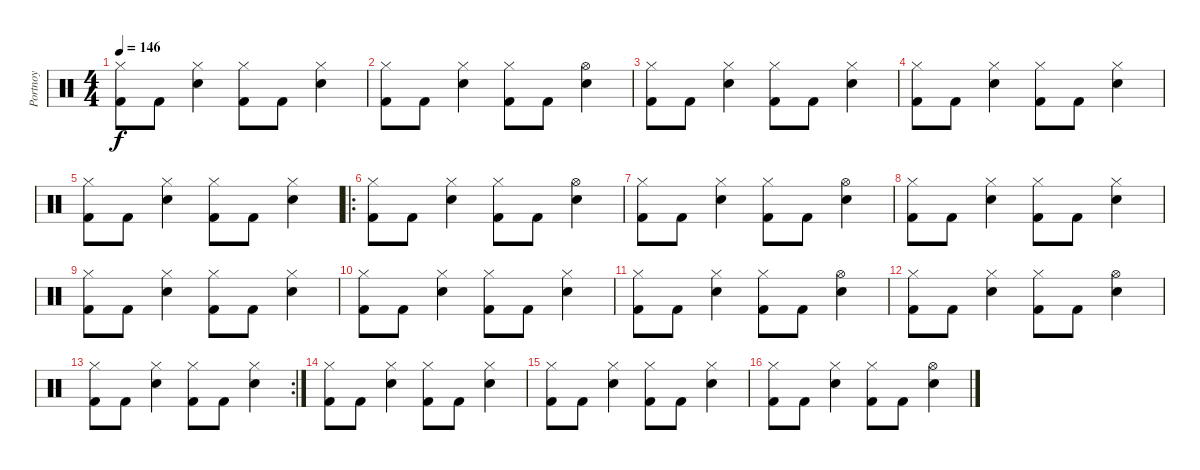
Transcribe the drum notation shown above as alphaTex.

\track ("Portnoy" "Portnoy") {instrument percussion}
\staff {score}
\articulation defaults
\ts (4 4)
\tempo 146
\clef neutral
\ks c
("Hi-Hat (closed)" "Kick (hit) 2").8{dy f} "Kick (hit) 2".8 ("Hi-Hat (closed)" "Electric Snare (hit)").4 ("Hi-Hat (closed)" "Kick (hit) 2").8 "Kick (hit) 2".8 ("Hi-Hat (closed)" "Electric Snare (hit)").4 |
("Hi-Hat (closed)" "Kick (hit) 2").8 "Kick (hit) 2".8 ("Hi-Hat (closed)" "Electric Snare (hit)").4 ("Hi-Hat (closed)" "Kick (hit) 2").8 "Kick (hit) 2".8 ("Hi-Hat (open)" "Electric Snare (hit)").4 |
("Hi-Hat (closed)" "Kick (hit) 2").8 "Kick (hit) 2".8 ("Hi-Hat (closed)" "Electric Snare (hit)").4 ("Hi-Hat (closed)" "Kick (hit) 2").8 "Kick (hit) 2".8 ("Hi-Hat (closed)" "Electric Snare (hit)").4 |
("Hi-Hat (closed)" "Kick (hit) 2").8 "Kick (hit) 2".8 ("Hi-Hat (closed)" "Electric Snare (hit)").4 ("Hi-Hat (closed)" "Kick (hit) 2").8 "Kick (hit) 2".8 ("Hi-Hat (closed)" "Electric Snare (hit)").4 |
("Hi-Hat (closed)" "Kick (hit) 2").8 "Kick (hit) 2".8 ("Hi-Hat (closed)" "Electric Snare (hit)").4 ("Hi-Hat (closed)" "Kick (hit) 2").8 "Kick (hit) 2".8 ("Hi-Hat (closed)" "Electric Snare (hit)").4 |
\ro
("Hi-Hat (closed)" "Kick (hit) 2").8 "Kick (hit) 2".8 ("Hi-Hat (closed)" "Electric Snare (hit)").4 ("Hi-Hat (closed)" "Kick (hit) 2").8 "Kick (hit) 2".8 ("Hi-Hat (open)" "Electric Snare (hit)").4 |
("Hi-Hat (closed)" "Kick (hit) 2").8 "Kick (hit) 2".8 ("Hi-Hat (closed)" "Electric Snare (hit)").4 ("Hi-Hat (closed)" "Kick (hit) 2").8 "Kick (hit) 2".8 ("Hi-Hat (open)" "Electric Snare (hit)").4 |
("Hi-Hat (closed)" "Kick (hit) 2").8 "Kick (hit) 2".8 ("Hi-Hat (closed)" "Electric Snare (hit)").4 ("Hi-Hat (closed)" "Kick (hit) 2").8 "Kick (hit) 2".8 ("Hi-Hat (closed)" "Electric Snare (hit)").4 |
("Hi-Hat (closed)" "Kick (hit) 2").8 "Kick (hit) 2".8 ("Hi-Hat (closed)" "Electric Snare (hit)").4 ("Hi-Hat (closed)" "Kick (hit) 2").8 "Kick (hit) 2".8 ("Hi-Hat (closed)" "Electric Snare (hit)").4 |
("Hi-Hat (closed)" "Kick (hit) 2").8 "Kick (hit) 2".8 ("Hi-Hat (closed)" "Electric Snare (hit)").4 ("Hi-Hat (closed)" "Kick (hit) 2").8 "Kick (hit) 2".8 ("Hi-Hat (closed)" "Electric Snare (hit)").4 |
("Hi-Hat (closed)" "Kick (hit) 2").8 "Kick (hit) 2".8 ("Hi-Hat (closed)" "Electric Snare (hit)").4 ("Hi-Hat (closed)" "Kick (hit) 2").8 "Kick (hit) 2".8 ("Hi-Hat (open)" "Electric Snare (hit)").4 |
("Hi-Hat (closed)" "Kick (hit) 2").8 "Kick (hit) 2".8 ("Hi-Hat (closed)" "Electric Snare (hit)").4 ("Hi-Hat (closed)" "Kick (hit) 2").8 "Kick (hit) 2".8 ("Hi-Hat (open)" "Electric Snare (hit)").4 |
\rc 2
("Hi-Hat (closed)" "Kick (hit) 2").8 "Kick (hit) 2".8 ("Hi-Hat (closed)" "Electric Snare (hit)").4 ("Hi-Hat (closed)" "Kick (hit) 2").8 "Kick (hit) 2".8 ("Hi-Hat (closed)" "Electric Snare (hit)").4 |
("Hi-Hat (closed)" "Kick (hit) 2").8 "Kick (hit) 2".8 ("Hi-Hat (closed)" "Electric Snare (hit)").4 ("Hi-Hat (closed)" "Kick (hit) 2").8 "Kick (hit) 2".8 ("Hi-Hat (closed)" "Electric Snare (hit)").4 |
("Hi-Hat (closed)" "Kick (hit) 2").8 "Kick (hit) 2".8 ("Hi-Hat (closed)" "Electric Snare (hit)").4 ("Hi-Hat (closed)" "Kick (hit) 2").8 "Kick (hit) 2".8 ("Hi-Hat (closed)" "Electric Snare (hit)").4 |
("Hi-Hat (closed)" "Kick (hit) 2").8 "Kick (hit) 2".8 ("Hi-Hat (closed)" "Electric Snare (hit)").4 ("Hi-Hat (closed)" "Kick (hit) 2").8 "Kick (hit) 2".8 ("Hi-Hat (open)" "Electric Snare (hit)").4
